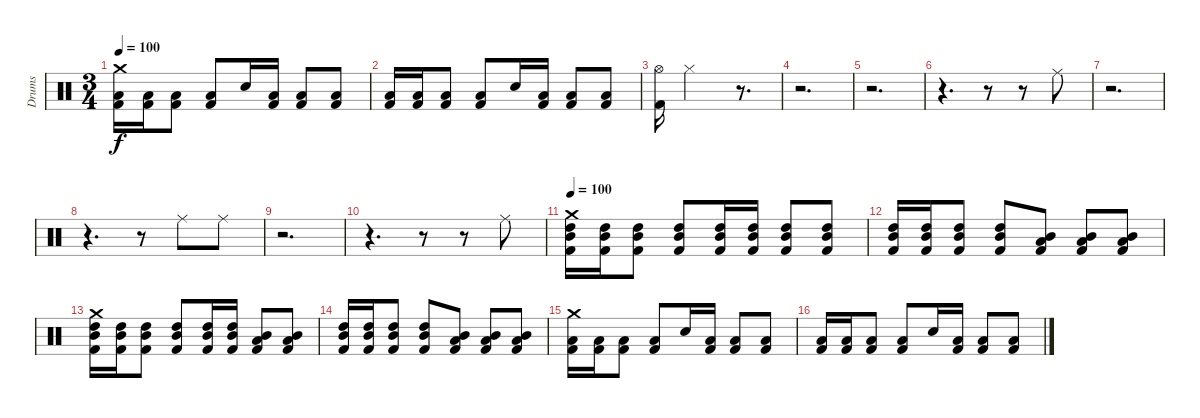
\track ("Drums" "Drums") {instrument percussion}
\staff {score}
\articulation defaults
\ts (3 4)
\tempo 100
\clef neutral
\ks c
("Crash medium (hit)" "Kick (hit) 2" "Low Tom (hit)").16{dy f} ("Kick (hit) 2" "Low Tom (hit)").16 ("Kick (hit) 2" "Low Tom (hit)").8 ("Kick (hit) 2" "Low Tom (hit)").8 "Electric Snare (hit)".16 ("Kick (hit) 2" "Low Tom (hit)").16 ("Kick (hit) 2" "Low Tom (hit)").8 ("Kick (hit) 2" "Low Tom (hit)").8 |
("Kick (hit) 2" "Low Tom (hit)").16 ("Kick (hit) 2" "Low Tom (hit)").16 ("Kick (hit) 2" "Low Tom (hit)").8 ("Kick (hit) 2" "Low Tom (hit)").8 "Electric Snare (hit)".16 ("Kick (hit) 2" "Low Tom (hit)").16 ("Kick (hit) 2" "Low Tom (hit)").8 ("Kick (hit) 2" "Low Tom (hit)").8 |
("Hi-Hat (open)" "Kick (hit) 2").16 "Hi-Hat (closed)".2 r.8{d} |
r.2{d} |
r.2{d} |
r.4{d} r.8 r.8 "Ride (middle)".8 |
r.2{d} |
r.4{d} r.8 "Ride (middle)".8 "Ride (middle)".8 |
r.2{d} |
r.4{d} r.8 r.8 "Ride (middle)".8 |
\tempo 100
("Crash medium (hit)" "Kick (hit) 2" "High Tom (hit)" "Mid Tom (hit)").16 ("Kick (hit) 2" "High Tom (hit)" "Mid Tom (hit)").16 ("Kick (hit) 2" "High Tom (hit)" "Mid Tom (hit)").8 ("Kick (hit) 2" "High Tom (hit)" "Mid Tom (hit)").8 ("Kick (hit) 2" "High Tom (hit)" "Mid Tom (hit)").16 ("Kick (hit) 2" "High Tom (hit)" "Mid Tom (hit)").16 ("Kick (hit) 2" "High Tom (hit)" "Mid Tom (hit)").8 ("Kick (hit) 2" "High Tom (hit)" "Mid Tom (hit)").8 |
("Kick (hit) 2" "High Tom (hit)" "Mid Tom (hit)").16 ("Kick (hit) 2" "High Tom (hit)" "Mid Tom (hit)").16 ("Kick (hit) 2" "High Tom (hit)" "Mid Tom (hit)").8 ("Kick (hit) 2" "High Tom (hit)" "Mid Tom (hit)").8 ("Kick (hit) 2" "Mid Tom (hit)" "Low Tom (hit)").8 ("Kick (hit) 2" "Mid Tom (hit)" "Low Tom (hit)").8 ("Kick (hit) 2" "Mid Tom (hit)" "Low Tom (hit)").8 |
("Crash medium (hit)" "Kick (hit) 2" "High Tom (hit)" "Mid Tom (hit)").16 ("Kick (hit) 2" "High Tom (hit)" "Mid Tom (hit)").16 ("Kick (hit) 2" "High Tom (hit)" "Mid Tom (hit)").8 ("Kick (hit) 2" "High Tom (hit)" "Mid Tom (hit)").8 ("Kick (hit) 2" "High Tom (hit)" "Mid Tom (hit)").16 ("Kick (hit) 2" "High Tom (hit)" "Mid Tom (hit)").16 ("Kick (hit) 2" "Mid Tom (hit)" "Low Tom (hit)").8 ("Kick (hit) 2" "Mid Tom (hit)" "Low Tom (hit)").8 |
("Kick (hit) 2" "High Tom (hit)" "Mid Tom (hit)").16 ("Kick (hit) 2" "High Tom (hit)" "Mid Tom (hit)").16 ("Kick (hit) 2" "High Tom (hit)" "Mid Tom (hit)").8 ("Kick (hit) 2" "High Tom (hit)" "Mid Tom (hit)").8 ("Kick (hit) 2" "Mid Tom (hit)" "Low Tom (hit)").8 ("Kick (hit) 2" "Mid Tom (hit)" "Low Tom (hit)").8 ("Kick (hit) 2" "Mid Tom (hit)" "Low Tom (hit)").8 |
("Crash medium (hit)" "Kick (hit) 2" "Low Tom (hit)").16 ("Kick (hit) 2" "Low Tom (hit)").16 ("Kick (hit) 2" "Low Tom (hit)").8 ("Kick (hit) 2" "Low Tom (hit)").8 "Electric Snare (hit)".16 ("Kick (hit) 2" "Low Tom (hit)").16 ("Kick (hit) 2" "Low Tom (hit)").8 ("Kick (hit) 2" "Low Tom (hit)").8 |
("Kick (hit) 2" "Low Tom (hit)").16 ("Kick (hit) 2" "Low Tom (hit)").16 ("Kick (hit) 2" "Low Tom (hit)").8 ("Kick (hit) 2" "Low Tom (hit)").8 "Electric Snare (hit)".16 ("Kick (hit) 2" "Low Tom (hit)").16 ("Kick (hit) 2" "Low Tom (hit)").8 ("Kick (hit) 2" "Low Tom (hit)").8
